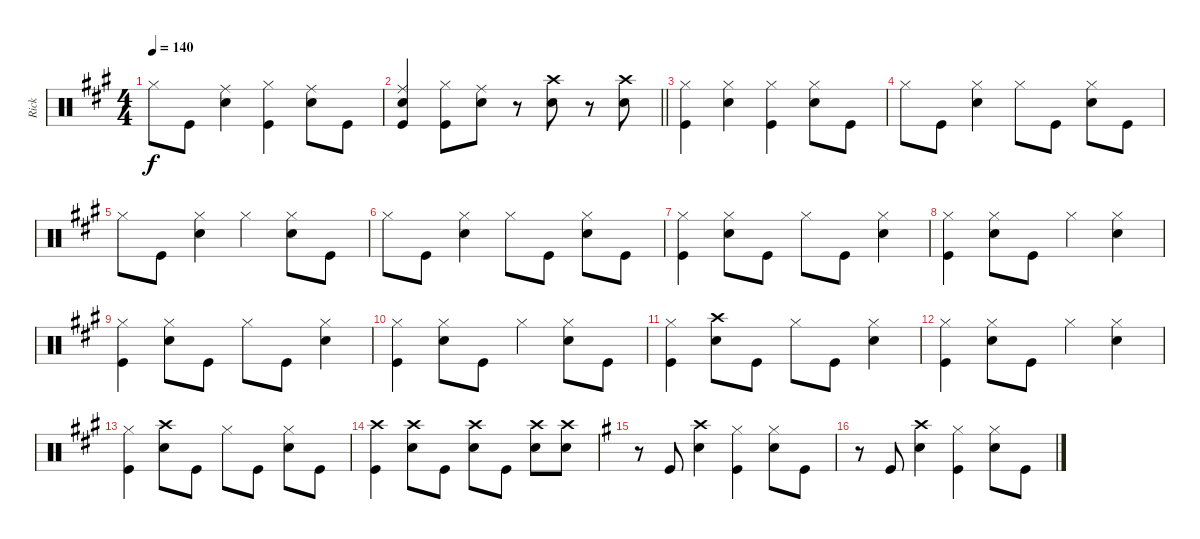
\track ("Rick" "Rick") {instrument percussion}
\staff {score}
\articulation defaults
\ts (4 4)
\tempo 140
\clef neutral
\ks a "Hi-Hat (closed)".8{dy f} "Kick (hit)".8
("Ride (middle)" "Snare (hit) 2").4 ("Hi-Hat (closed)" "Kick (hit)").4 ("Ride (middle)" "Snare (hit) 2").8 "Kick (hit)".8 |
\barLineRight lightlight
("Ride (middle)" "Snare (hit) 2" "Kick (hit)").4 ("Hi-Hat (closed)" "Kick (hit)").8 ("Ride (middle)" "Snare (hit) 2").8 r.8 ("Crash high (hit)" "Snare (hit) 2").8 r.8 ("Crash high (hit)" "Snare (hit) 2").8 |
("Hi-Hat (closed)" "Kick (hit)").4 ("Hi-Hat (closed)" "Snare (hit) 2").4 ("Hi-Hat (closed)" "Kick (hit)").4 ("Hi-Hat (closed)" "Snare (hit) 2").8 "Kick (hit)".8 |
"Hi-Hat (closed)".8 "Kick (hit)".8 ("Hi-Hat (closed)" "Snare (hit) 2").4 "Hi-Hat (closed)".8 "Kick (hit)".8 ("Hi-Hat (closed)" "Snare (hit) 2").8 "Kick (hit)".8 |
"Hi-Hat (closed)".8 "Kick (hit)".8 ("Hi-Hat (closed)" "Snare (hit) 2").4 "Hi-Hat (closed)".4 ("Hi-Hat (closed)" "Snare (hit) 2").8 "Kick (hit)".8 |
"Hi-Hat (closed)".8 "Kick (hit)".8 ("Hi-Hat (closed)" "Snare (hit) 2").4 "Hi-Hat (closed)".8 "Kick (hit)".8 ("Hi-Hat (closed)" "Snare (hit) 2").8 "Kick (hit)".8 |
("Hi-Hat (closed)" "Kick (hit)").4 ("Hi-Hat (closed)" "Snare (hit) 2").8 "Kick (hit)".8 "Hi-Hat (closed)".8 "Kick (hit)".8 ("Hi-Hat (closed)" "Snare (hit) 2").4 |
("Hi-Hat (closed)" "Kick (hit)").4 ("Hi-Hat (closed)" "Snare (hit) 2").8 "Kick (hit)".8 "Hi-Hat (closed)".4 ("Hi-Hat (closed)" "Snare (hit) 2").4 |
("Hi-Hat (closed)" "Kick (hit)").4 ("Hi-Hat (closed)" "Snare (hit) 2").8 "Kick (hit)".8 "Hi-Hat (closed)".8 "Kick (hit)".8 ("Hi-Hat (closed)" "Snare (hit) 2").4 |
("Hi-Hat (closed)" "Kick (hit)").4 ("Hi-Hat (closed)" "Snare (hit) 2").8 "Kick (hit)".8 "Hi-Hat (closed)".4 ("Hi-Hat (closed)" "Snare (hit) 2").8 "Kick (hit)".8 |
("Hi-Hat (closed)" "Kick (hit)").4 ("Crash high (hit)" "Snare (hit) 2").8 "Kick (hit)".8 "Hi-Hat (closed)".8 "Kick (hit)".8 ("Hi-Hat (closed)" "Snare (hit) 2").4 |
("Hi-Hat (closed)" "Kick (hit)").4 ("Hi-Hat (closed)" "Snare (hit) 2").8 "Kick (hit)".8 "Hi-Hat (closed)".4 ("Hi-Hat (closed)" "Snare (hit) 2").4 |
("Hi-Hat (closed)" "Kick (hit)").4 ("Crash high (hit)" "Snare (hit) 2").8 "Kick (hit)".8 "Hi-Hat (closed)".8 "Kick (hit)".8 ("Hi-Hat (closed)" "Snare (hit) 2").8 "Kick (hit)".8 |
("Crash high (hit)" "Kick (hit)").4 ("Crash high (hit)" "Snare (hit) 2").8 "Kick (hit)".8 ("Crash high (hit)" "Snare (hit) 2").8 "Kick (hit)".8 ("Crash high (hit)" "Snare (hit) 2").8 ("Crash high (hit)" "Snare (hit) 2").8 |
\ks g
r.8 "Kick (hit)".8 ("Crash high (hit)" "Snare (hit) 2").4 ("Hi-Hat (closed)" "Kick (hit)").4 ("Hi-Hat (closed)" "Snare (hit) 2").8 "Kick (hit)".8 |
r.8 "Kick (hit)".8 ("Crash high (hit)" "Snare (hit) 2").4 ("Hi-Hat (closed)" "Kick (hit)").4 ("Hi-Hat (closed)" "Snare (hit) 2").8 "Kick (hit)".8
